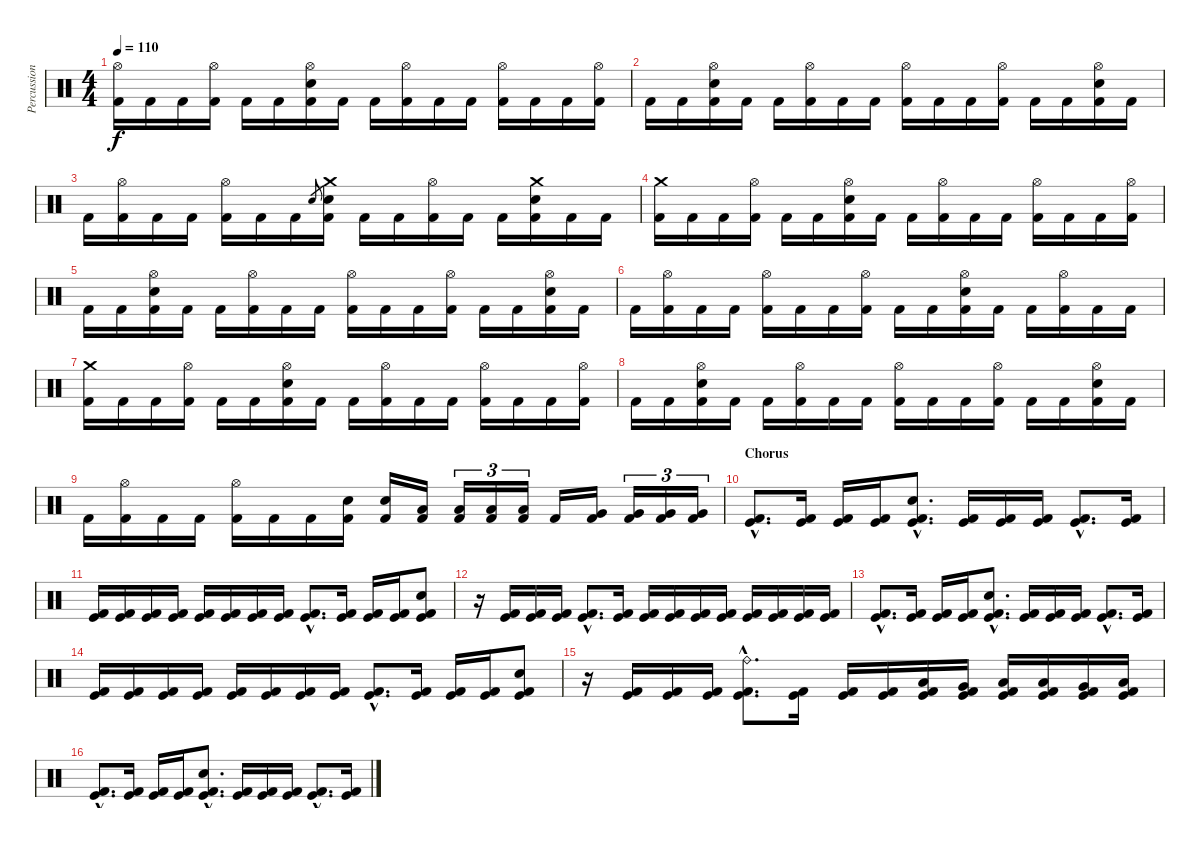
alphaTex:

\track ("Percussion" "Percussion") {instrument percussion}
\staff {score}
\articulation defaults
\ts (4 4)
\tempo 110
\clef neutral
\ks c
("Hi-Hat (open)" "Kick (hit) 2").16{dy f} "Kick (hit) 2".16 "Kick (hit) 2".16 ("Hi-Hat (open)" "Kick (hit) 2").16 "Kick (hit) 2".16 "Kick (hit) 2".16 ("Hi-Hat (open)" "Electric Snare (hit)" "Kick (hit) 2").16 "Kick (hit) 2".16 "Kick (hit) 2".16 ("Hi-Hat (open)" "Kick (hit) 2").16 "Kick (hit) 2".16 "Kick (hit) 2".16 ("Hi-Hat (open)" "Kick (hit) 2").16 "Kick (hit) 2".16 "Kick (hit) 2".16 ("Hi-Hat (open)" "Kick (hit) 2").16 |
"Kick (hit) 2".16 "Kick (hit) 2".16 ("Hi-Hat (open)" "Electric Snare (hit)" "Kick (hit) 2").16 "Kick (hit) 2".16 "Kick (hit) 2".16 ("Hi-Hat (open)" "Kick (hit) 2").16 "Kick (hit) 2".16 "Kick (hit) 2".16 ("Hi-Hat (open)" "Kick (hit) 2").16 "Kick (hit) 2".16 "Kick (hit) 2".16 ("Hi-Hat (open)" "Kick (hit) 2").16 "Kick (hit) 2".16 "Kick (hit) 2".16 ("Hi-Hat (open)" "Electric Snare (hit)" "Kick (hit) 2").16 "Kick (hit) 2".16 |
"Kick (hit) 2".16 ("Hi-Hat (open)" "Kick (hit) 2").16 "Kick (hit) 2".16 "Kick (hit) 2".16 ("Hi-Hat (open)" "Kick (hit) 2").16 "Kick (hit) 2".16 "Kick (hit) 2".16 "Electric Snare (hit)".8{gr} ("Crash medium (hit)" "Electric Snare (hit)" "Kick (hit) 2").16 "Kick (hit) 2".16 "Kick (hit) 2".16 ("Hi-Hat (open)" "Kick (hit) 2").16 "Kick (hit) 2".16 "Kick (hit) 2".16 ("Crash medium (hit)" "Electric Snare (hit)" "Kick (hit) 2").16 "Kick (hit) 2".16 "Kick (hit) 2".16 |
("Crash medium (hit)" "Kick (hit) 2").16 "Kick (hit) 2".16 "Kick (hit) 2".16 ("Hi-Hat (open)" "Kick (hit) 2").16 "Kick (hit) 2".16 "Kick (hit) 2".16 ("Hi-Hat (open)" "Electric Snare (hit)" "Kick (hit) 2").16 "Kick (hit) 2".16 "Kick (hit) 2".16 ("Hi-Hat (open)" "Kick (hit) 2").16 "Kick (hit) 2".16 "Kick (hit) 2".16 ("Hi-Hat (open)" "Kick (hit) 2").16 "Kick (hit) 2".16 "Kick (hit) 2".16 ("Hi-Hat (open)" "Kick (hit) 2").16 |
"Kick (hit) 2".16 "Kick (hit) 2".16 ("Hi-Hat (open)" "Electric Snare (hit)" "Kick (hit) 2").16 "Kick (hit) 2".16 "Kick (hit) 2".16 ("Hi-Hat (open)" "Kick (hit) 2").16 "Kick (hit) 2".16 "Kick (hit) 2".16 ("Hi-Hat (open)" "Kick (hit) 2").16 "Kick (hit) 2".16 "Kick (hit) 2".16 ("Hi-Hat (open)" "Kick (hit) 2").16 "Kick (hit) 2".16 "Kick (hit) 2".16 ("Hi-Hat (open)" "Electric Snare (hit)" "Kick (hit) 2").16 "Kick (hit) 2".16 |
"Kick (hit) 2".16 ("Hi-Hat (open)" "Kick (hit) 2").16 "Kick (hit) 2".16 "Kick (hit) 2".16 ("Hi-Hat (open)" "Kick (hit) 2").16 "Kick (hit) 2".16 "Kick (hit) 2".16 ("Hi-Hat (open)" "Kick (hit) 2").16 "Kick (hit) 2".16 "Kick (hit) 2".16 ("Hi-Hat (open)" "Electric Snare (hit)" "Kick (hit) 2").16 "Kick (hit) 2".16 "Kick (hit) 2".16 ("Hi-Hat (open)" "Kick (hit) 2").16 "Kick (hit) 2".16 "Kick (hit) 2".16 |
("Crash medium (hit)" "Kick (hit) 2").16 "Kick (hit) 2".16 "Kick (hit) 2".16 ("Hi-Hat (open)" "Kick (hit) 2").16 "Kick (hit) 2".16 "Kick (hit) 2".16 ("Hi-Hat (open)" "Electric Snare (hit)" "Kick (hit) 2").16 "Kick (hit) 2".16 "Kick (hit) 2".16 ("Hi-Hat (open)" "Kick (hit) 2").16 "Kick (hit) 2".16 "Kick (hit) 2".16 ("Hi-Hat (open)" "Kick (hit) 2").16 "Kick (hit) 2".16 "Kick (hit) 2".16 ("Hi-Hat (open)" "Kick (hit) 2").16 |
"Kick (hit) 2".16 "Kick (hit) 2".16 ("Hi-Hat (open)" "Electric Snare (hit)" "Kick (hit) 2").16 "Kick (hit) 2".16 "Kick (hit) 2".16 ("Hi-Hat (open)" "Kick (hit) 2").16 "Kick (hit) 2".16 "Kick (hit) 2".16 ("Hi-Hat (open)" "Kick (hit) 2").16 "Kick (hit) 2".16 "Kick (hit) 2".16 ("Hi-Hat (open)" "Kick (hit) 2").16 "Kick (hit) 2".16 "Kick (hit) 2".16 ("Hi-Hat (open)" "Electric Snare (hit)" "Kick (hit) 2").16 "Kick (hit) 2".16 |
"Kick (hit) 2".16 ("Hi-Hat (open)" "Kick (hit) 2").16 "Kick (hit) 2".16 "Kick (hit) 2".16 ("Hi-Hat (open)" "Kick (hit) 2").16 "Kick (hit) 2".16 "Kick (hit) 2".16 ("Electric Snare (hit)" "Kick (hit) 2").16 ("Electric Snare (hit)" "Kick (hit) 2").16 ("Low Tom (hit)" "Kick (hit) 2").16 ("Low Tom (hit)" "Kick (hit) 2").16{tu (3 2)} ("Low Tom (hit)" "Kick (hit) 2").16{tu (3 2)} ("Low Tom (hit)" "Kick (hit) 2").16{tu (3 2)} "Kick (hit) 2".16 ("Very Low Tom (hit)" "Kick (hit) 2").16 ("Very Low Tom (hit)" "Kick (hit) 2").16{tu (3 2)} ("Very Low Tom (hit)" "Kick (hit) 2").16{tu (3 2)} ("Very Low Tom (hit)" "Kick (hit) 2").16{tu (3 2)} |
\section ("" "Chorus")
("Kick (hit)"{hac} "Kick (hit) 2"{hac}).8{d} ("Kick (hit)" "Kick (hit) 2").16 ("Kick (hit)" "Kick (hit) 2").16 ("Kick (hit)" "Kick (hit) 2").16 ("Electric Snare (hit)"{hac} "Kick (hit)"{hac} "Kick (hit) 2"{hac}).8{d} ("Kick (hit)" "Kick (hit) 2").16 ("Kick (hit)" "Kick (hit) 2").16 ("Kick (hit)" "Kick (hit) 2").16 ("Kick (hit)"{hac} "Kick (hit) 2"{hac}).8{d} ("Kick (hit)" "Kick (hit) 2").16 |
("Kick (hit)" "Kick (hit) 2").16 ("Kick (hit)" "Kick (hit) 2").16 ("Kick (hit)" "Kick (hit) 2").16 ("Kick (hit)" "Kick (hit) 2").16 ("Kick (hit)" "Kick (hit) 2").16 ("Kick (hit)" "Kick (hit) 2").16 ("Kick (hit)" "Kick (hit) 2").16 ("Kick (hit)" "Kick (hit) 2").16 ("Kick (hit)"{hac} "Kick (hit) 2"{hac}).8{d} ("Kick (hit)" "Kick (hit) 2").16 ("Kick (hit)" "Kick (hit) 2").16 ("Kick (hit)" "Kick (hit) 2").16 ("Electric Snare (hit)" "Kick (hit)" "Kick (hit) 2").8 |
r.16 ("Kick (hit)" "Kick (hit) 2").16 ("Kick (hit)" "Kick (hit) 2").16 ("Kick (hit)" "Kick (hit) 2").16 ("Kick (hit)"{hac} "Kick (hit) 2"{hac}).8{d} ("Kick (hit)" "Kick (hit) 2").16 ("Kick (hit)" "Kick (hit) 2").16 ("Kick (hit)" "Kick (hit) 2").16 ("Kick (hit)" "Kick (hit) 2").16 ("Kick (hit)" "Kick (hit) 2").16 ("Kick (hit)" "Kick (hit) 2").16 ("Kick (hit)" "Kick (hit) 2").16 ("Kick (hit)" "Kick (hit) 2").16 ("Kick (hit)" "Kick (hit) 2").16 |
("Kick (hit)"{hac} "Kick (hit) 2"{hac}).8{d} ("Kick (hit)" "Kick (hit) 2").16 ("Kick (hit)" "Kick (hit) 2").16 ("Kick (hit)" "Kick (hit) 2").16 ("Electric Snare (hit)"{hac} "Kick (hit)"{hac} "Kick (hit) 2"{hac}).8{d} ("Kick (hit)" "Kick (hit) 2").16 ("Kick (hit)" "Kick (hit) 2").16 ("Kick (hit)" "Kick (hit) 2").16 ("Kick (hit)"{hac} "Kick (hit) 2"{hac}).8{d} ("Kick (hit)" "Kick (hit) 2").16 |
("Kick (hit)" "Kick (hit) 2").16 ("Kick (hit)" "Kick (hit) 2").16 ("Kick (hit)" "Kick (hit) 2").16 ("Kick (hit)" "Kick (hit) 2").16 ("Kick (hit)" "Kick (hit) 2").16 ("Kick (hit)" "Kick (hit) 2").16 ("Kick (hit)" "Kick (hit) 2").16 ("Kick (hit)" "Kick (hit) 2").16 ("Kick (hit)"{hac} "Kick (hit) 2"{hac}).8{d} ("Kick (hit)" "Kick (hit) 2").16 ("Kick (hit)" "Kick (hit) 2").16 ("Kick (hit)" "Kick (hit) 2").16 ("Electric Snare (hit)" "Kick (hit)" "Kick (hit) 2").8 |
r.16 ("Kick (hit)" "Kick (hit) 2").16 ("Kick (hit)" "Kick (hit) 2").16 ("Kick (hit)" "Kick (hit) 2").16 ("Ride (bell)"{hac} "Kick (hit)"{hac} "Kick (hit) 2"{hac}).8{d} ("Kick (hit)" "Kick (hit) 2").16 ("Kick (hit)" "Kick (hit) 2").16 ("Kick (hit)" "Kick (hit) 2").16 ("Low Tom (hit)" "Kick (hit)" "Kick (hit) 2").16 ("Very Low Tom (hit)" "Kick (hit)" "Kick (hit) 2").16 ("Low Floor Tom (hit)" "Kick (hit)" "Kick (hit) 2").16 ("Low Tom (hit)" "Kick (hit)" "Kick (hit) 2").16 ("Very Low Tom (hit)" "Kick (hit)" "Kick (hit) 2").16 ("Low Floor Tom (hit)" "Kick (hit)" "Kick (hit) 2").16 |
("Kick (hit)"{hac} "Kick (hit) 2"{hac}).8{d} ("Kick (hit)" "Kick (hit) 2").16 ("Kick (hit)" "Kick (hit) 2").16 ("Kick (hit)" "Kick (hit) 2").16 ("Electric Snare (hit)"{hac} "Kick (hit)"{hac} "Kick (hit) 2"{hac}).8{d} ("Kick (hit)" "Kick (hit) 2").16 ("Kick (hit)" "Kick (hit) 2").16 ("Kick (hit)" "Kick (hit) 2").16 ("Kick (hit)"{hac} "Kick (hit) 2"{hac}).8{d} ("Kick (hit)" "Kick (hit) 2").16
